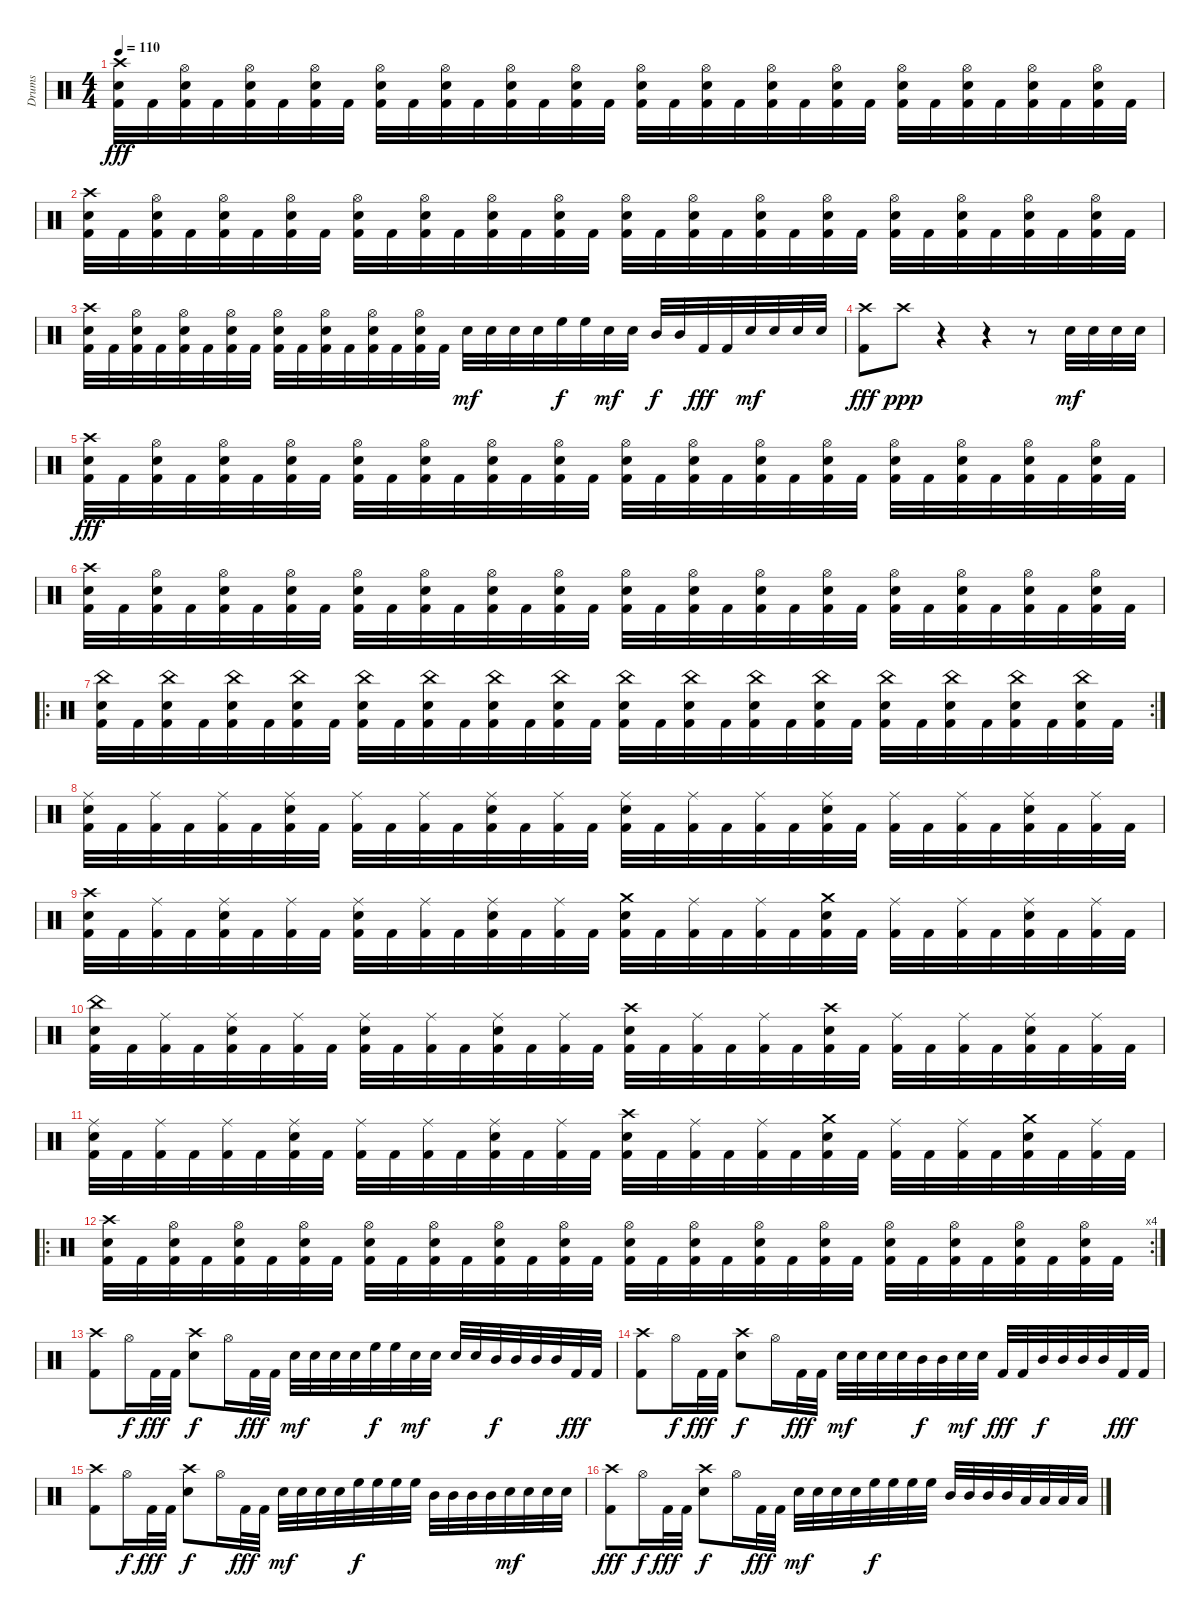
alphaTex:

\track ("Drums" "Drums") {instrument percussion}
\staff {score}
\articulation defaults
\ts (4 4)
\tempo 110
\clef neutral
\ks c
("Crash high (hit)" "Electric Snare (hit)" "Kick (hit) 2").32{dy fff} "Kick (hit) 2".32 ("Hi-Hat (open)" "Electric Snare (hit)" "Kick (hit) 2").32 "Kick (hit) 2".32 ("Hi-Hat (open)" "Electric Snare (hit)" "Kick (hit) 2").32 "Kick (hit) 2".32 ("Hi-Hat (open)" "Electric Snare (hit)" "Kick (hit) 2").32 "Kick (hit) 2".32 ("Hi-Hat (open)" "Electric Snare (hit)" "Kick (hit) 2").32 "Kick (hit) 2".32 ("Hi-Hat (open)" "Electric Snare (hit)" "Kick (hit) 2").32 "Kick (hit) 2".32 ("Hi-Hat (open)" "Electric Snare (hit)" "Kick (hit) 2").32 "Kick (hit) 2".32 ("Hi-Hat (open)" "Electric Snare (hit)" "Kick (hit) 2").32 "Kick (hit) 2".32 ("Hi-Hat (open)" "Electric Snare (hit)" "Kick (hit) 2").32 "Kick (hit) 2".32 ("Hi-Hat (open)" "Electric Snare (hit)" "Kick (hit) 2").32 "Kick (hit) 2".32 ("Hi-Hat (open)" "Electric Snare (hit)" "Kick (hit) 2").32 "Kick (hit) 2".32 ("Hi-Hat (open)" "Electric Snare (hit)" "Kick (hit) 2").32 "Kick (hit) 2".32 ("Hi-Hat (open)" "Electric Snare (hit)" "Kick (hit) 2").32 "Kick (hit) 2".32 ("Hi-Hat (open)" "Electric Snare (hit)" "Kick (hit) 2").32 "Kick (hit) 2".32 ("Hi-Hat (open)" "Electric Snare (hit)" "Kick (hit) 2").32 "Kick (hit) 2".32 ("Hi-Hat (open)" "Electric Snare (hit)" "Kick (hit) 2").32 "Kick (hit) 2".32 |
("Crash high (hit)" "Electric Snare (hit)" "Kick (hit) 2").32 "Kick (hit) 2".32 ("Hi-Hat (open)" "Electric Snare (hit)" "Kick (hit) 2").32 "Kick (hit) 2".32 ("Hi-Hat (open)" "Electric Snare (hit)" "Kick (hit) 2").32 "Kick (hit) 2".32 ("Hi-Hat (open)" "Electric Snare (hit)" "Kick (hit) 2").32 "Kick (hit) 2".32 ("Hi-Hat (open)" "Electric Snare (hit)" "Kick (hit) 2").32 "Kick (hit) 2".32 ("Hi-Hat (open)" "Electric Snare (hit)" "Kick (hit) 2").32 "Kick (hit) 2".32 ("Hi-Hat (open)" "Electric Snare (hit)" "Kick (hit) 2").32 "Kick (hit) 2".32 ("Hi-Hat (open)" "Electric Snare (hit)" "Kick (hit) 2").32 "Kick (hit) 2".32 ("Hi-Hat (open)" "Electric Snare (hit)" "Kick (hit) 2").32 "Kick (hit) 2".32 ("Hi-Hat (open)" "Electric Snare (hit)" "Kick (hit) 2").32 "Kick (hit) 2".32 ("Hi-Hat (open)" "Electric Snare (hit)" "Kick (hit) 2").32 "Kick (hit) 2".32 ("Hi-Hat (open)" "Electric Snare (hit)" "Kick (hit) 2").32 "Kick (hit) 2".32 ("Hi-Hat (open)" "Electric Snare (hit)" "Kick (hit) 2").32 "Kick (hit) 2".32 ("Hi-Hat (open)" "Electric Snare (hit)" "Kick (hit) 2").32 "Kick (hit) 2".32 ("Hi-Hat (open)" "Electric Snare (hit)" "Kick (hit) 2").32 "Kick (hit) 2".32 ("Hi-Hat (open)" "Electric Snare (hit)" "Kick (hit) 2").32 "Kick (hit) 2".32 |
("Crash high (hit)" "Electric Snare (hit)" "Kick (hit) 2").32 "Kick (hit) 2".32 ("Hi-Hat (open)" "Electric Snare (hit)" "Kick (hit) 2").32 "Kick (hit) 2".32 ("Hi-Hat (open)" "Electric Snare (hit)" "Kick (hit) 2").32 "Kick (hit) 2".32 ("Hi-Hat (open)" "Electric Snare (hit)" "Kick (hit) 2").32 "Kick (hit) 2".32 ("Hi-Hat (open)" "Electric Snare (hit)" "Kick (hit) 2").32 "Kick (hit) 2".32 ("Hi-Hat (open)" "Electric Snare (hit)" "Kick (hit) 2").32 "Kick (hit) 2".32 ("Hi-Hat (open)" "Electric Snare (hit)" "Kick (hit) 2").32 "Kick (hit) 2".32 ("Hi-Hat (open)" "Electric Snare (hit)" "Kick (hit) 2").32 "Kick (hit) 2".32 "Electric Snare (hit)".32{dy mf} "Electric Snare (hit)".32 "Electric Snare (hit)".32 "Electric Snare (hit)".32 "High Floor Tom (hit)".32{dy f} "High Floor Tom (hit)".32 "Electric Snare (hit)".32{dy mf} "Electric Snare (hit)".32 "Mid Tom (hit)".32{dy f} "Mid Tom (hit)".32 "Kick (hit) 2".32{dy fff} "Kick (hit) 2".32 "Electric Snare (hit)".32{dy mf} "Electric Snare (hit)".32 "Electric Snare (hit)".32 "Electric Snare (hit)".32 |
("Crash high (hit)" "Kick (hit) 2").8{dy fff} "Crash high (hit)".8{dy ppp} r.4 r.4 r.8 "Electric Snare (hit)".32{dy mf} "Electric Snare (hit)".32 "Electric Snare (hit)".32 "Electric Snare (hit)".32 |
("Crash high (hit)" "Electric Snare (hit)" "Kick (hit) 2").32{dy fff} "Kick (hit) 2".32 ("Hi-Hat (open)" "Electric Snare (hit)" "Kick (hit) 2").32 "Kick (hit) 2".32 ("Hi-Hat (open)" "Electric Snare (hit)" "Kick (hit) 2").32 "Kick (hit) 2".32 ("Hi-Hat (open)" "Electric Snare (hit)" "Kick (hit) 2").32 "Kick (hit) 2".32 ("Hi-Hat (open)" "Electric Snare (hit)" "Kick (hit) 2").32 "Kick (hit) 2".32 ("Hi-Hat (open)" "Electric Snare (hit)" "Kick (hit) 2").32 "Kick (hit) 2".32 ("Hi-Hat (open)" "Electric Snare (hit)" "Kick (hit) 2").32 "Kick (hit) 2".32 ("Hi-Hat (open)" "Electric Snare (hit)" "Kick (hit) 2").32 "Kick (hit) 2".32 ("Hi-Hat (open)" "Electric Snare (hit)" "Kick (hit) 2").32 "Kick (hit) 2".32 ("Hi-Hat (open)" "Electric Snare (hit)" "Kick (hit) 2").32 "Kick (hit) 2".32 ("Hi-Hat (open)" "Electric Snare (hit)" "Kick (hit) 2").32 "Kick (hit) 2".32 ("Hi-Hat (open)" "Electric Snare (hit)" "Kick (hit) 2").32 "Kick (hit) 2".32 ("Hi-Hat (open)" "Electric Snare (hit)" "Kick (hit) 2").32 "Kick (hit) 2".32 ("Hi-Hat (open)" "Electric Snare (hit)" "Kick (hit) 2").32 "Kick (hit) 2".32 ("Hi-Hat (open)" "Electric Snare (hit)" "Kick (hit) 2").32 "Kick (hit) 2".32 ("Hi-Hat (open)" "Electric Snare (hit)" "Kick (hit) 2").32 "Kick (hit) 2".32 |
("Crash high (hit)" "Electric Snare (hit)" "Kick (hit) 2").32 "Kick (hit) 2".32 ("Hi-Hat (open)" "Electric Snare (hit)" "Kick (hit) 2").32 "Kick (hit) 2".32 ("Hi-Hat (open)" "Electric Snare (hit)" "Kick (hit) 2").32 "Kick (hit) 2".32 ("Hi-Hat (open)" "Electric Snare (hit)" "Kick (hit) 2").32 "Kick (hit) 2".32 ("Hi-Hat (open)" "Electric Snare (hit)" "Kick (hit) 2").32 "Kick (hit) 2".32 ("Hi-Hat (open)" "Electric Snare (hit)" "Kick (hit) 2").32 "Kick (hit) 2".32 ("Hi-Hat (open)" "Electric Snare (hit)" "Kick (hit) 2").32 "Kick (hit) 2".32 ("Hi-Hat (open)" "Electric Snare (hit)" "Kick (hit) 2").32 "Kick (hit) 2".32 ("Hi-Hat (open)" "Electric Snare (hit)" "Kick (hit) 2").32 "Kick (hit) 2".32 ("Hi-Hat (open)" "Electric Snare (hit)" "Kick (hit) 2").32 "Kick (hit) 2".32 ("Hi-Hat (open)" "Electric Snare (hit)" "Kick (hit) 2").32 "Kick (hit) 2".32 ("Hi-Hat (open)" "Electric Snare (hit)" "Kick (hit) 2").32 "Kick (hit) 2".32 ("Hi-Hat (open)" "Electric Snare (hit)" "Kick (hit) 2").32 "Kick (hit) 2".32 ("Hi-Hat (open)" "Electric Snare (hit)" "Kick (hit) 2").32 "Kick (hit) 2".32 ("Hi-Hat (open)" "Electric Snare (hit)" "Kick (hit) 2").32 "Kick (hit) 2".32 ("Hi-Hat (open)" "Electric Snare (hit)" "Kick (hit) 2").32 "Kick (hit) 2".32 |
\ro
\rc 2
("China (hit)" "Electric Snare (hit)" "Kick (hit) 2").32 "Kick (hit) 2".32 ("China (hit)" "Electric Snare (hit)" "Kick (hit) 2").32 "Kick (hit) 2".32 ("China (hit)" "Electric Snare (hit)" "Kick (hit) 2").32 "Kick (hit) 2".32 ("China (hit)" "Electric Snare (hit)" "Kick (hit) 2").32 "Kick (hit) 2".32 ("China (hit)" "Electric Snare (hit)" "Kick (hit) 2").32 "Kick (hit) 2".32 ("China (hit)" "Electric Snare (hit)" "Kick (hit) 2").32 "Kick (hit) 2".32 ("China (hit)" "Electric Snare (hit)" "Kick (hit) 2").32 "Kick (hit) 2".32 ("China (hit)" "Electric Snare (hit)" "Kick (hit) 2").32 "Kick (hit) 2".32 ("China (hit)" "Electric Snare (hit)" "Kick (hit) 2").32 "Kick (hit) 2".32 ("China (hit)" "Electric Snare (hit)" "Kick (hit) 2").32 "Kick (hit) 2".32 ("China (hit)" "Electric Snare (hit)" "Kick (hit) 2").32 "Kick (hit) 2".32 ("China (hit)" "Electric Snare (hit)" "Kick (hit) 2").32 "Kick (hit) 2".32 ("China (hit)" "Electric Snare (hit)" "Kick (hit) 2").32 "Kick (hit) 2".32 ("China (hit)" "Electric Snare (hit)" "Kick (hit) 2").32 "Kick (hit) 2".32 ("China (hit)" "Electric Snare (hit)" "Kick (hit) 2").32 "Kick (hit) 2".32 ("China (hit)" "Electric Snare (hit)" "Kick (hit) 2").32 "Kick (hit) 2".32 |
("Ride (middle)" "Electric Snare (hit)" "Kick (hit) 2").32 "Kick (hit) 2".32 ("Ride (middle)" "Kick (hit) 2").32 "Kick (hit) 2".32 ("Ride (middle)" "Kick (hit) 2").32 "Kick (hit) 2".32 ("Ride (middle)" "Electric Snare (hit)" "Kick (hit) 2").32 "Kick (hit) 2".32 ("Ride (middle)" "Kick (hit) 2").32 "Kick (hit) 2".32 ("Ride (middle)" "Kick (hit) 2").32 "Kick (hit) 2".32 ("Ride (middle)" "Electric Snare (hit)" "Kick (hit) 2").32 "Kick (hit) 2".32 ("Ride (middle)" "Kick (hit) 2").32 "Kick (hit) 2".32 ("Ride (middle)" "Electric Snare (hit)" "Kick (hit) 2").32 "Kick (hit) 2".32 ("Ride (middle)" "Kick (hit) 2").32 "Kick (hit) 2".32 ("Ride (middle)" "Kick (hit) 2").32 "Kick (hit) 2".32 ("Ride (middle)" "Electric Snare (hit)" "Kick (hit) 2").32 "Kick (hit) 2".32 ("Ride (middle)" "Kick (hit) 2").32 "Kick (hit) 2".32 ("Ride (middle)" "Kick (hit) 2").32 "Kick (hit) 2".32 ("Ride (middle)" "Electric Snare (hit)" "Kick (hit) 2").32 "Kick (hit) 2".32 ("Ride (middle)" "Kick (hit) 2").32 "Kick (hit) 2".32 |
("Crash high (hit)" "Electric Snare (hit)" "Kick (hit) 2").32 "Kick (hit) 2".32 ("Ride (middle)" "Kick (hit) 2").32 "Kick (hit) 2".32 ("Ride (middle)" "Electric Snare (hit)" "Kick (hit) 2").32 "Kick (hit) 2".32 ("Ride (middle)" "Kick (hit) 2").32 "Kick (hit) 2".32 ("Ride (middle)" "Electric Snare (hit)" "Kick (hit) 2").32 "Kick (hit) 2".32 ("Ride (middle)" "Kick (hit) 2").32 "Kick (hit) 2".32 ("Ride (middle)" "Electric Snare (hit)" "Kick (hit) 2").32 "Kick (hit) 2".32 ("Ride (middle)" "Kick (hit) 2").32 "Kick (hit) 2".32 ("Crash medium (hit)" "Electric Snare (hit)" "Kick (hit) 2").32 "Kick (hit) 2".32 ("Ride (middle)" "Kick (hit) 2").32 "Kick (hit) 2".32 ("Ride (middle)" "Kick (hit) 2").32 "Kick (hit) 2".32 ("Crash medium (hit)" "Electric Snare (hit)" "Kick (hit) 2").32 "Kick (hit) 2".32 ("Ride (middle)" "Kick (hit) 2").32 "Kick (hit) 2".32 ("Ride (middle)" "Kick (hit) 2").32 "Kick (hit) 2".32 ("Ride (middle)" "Electric Snare (hit)" "Kick (hit) 2").32 "Kick (hit) 2".32 ("Ride (middle)" "Kick (hit) 2").32 "Kick (hit) 2".32 |
("China (hit)" "Electric Snare (hit)" "Kick (hit) 2").32 "Kick (hit) 2".32 ("Ride (middle)" "Kick (hit) 2").32 "Kick (hit) 2".32 ("Ride (middle)" "Electric Snare (hit)" "Kick (hit) 2").32 "Kick (hit) 2".32 ("Ride (middle)" "Kick (hit) 2").32 "Kick (hit) 2".32 ("Ride (middle)" "Electric Snare (hit)" "Kick (hit) 2").32 "Kick (hit) 2".32 ("Ride (middle)" "Kick (hit) 2").32 "Kick (hit) 2".32 ("Ride (middle)" "Electric Snare (hit)" "Kick (hit) 2").32 "Kick (hit) 2".32 ("Ride (middle)" "Kick (hit) 2").32 "Kick (hit) 2".32 ("Crash high (hit)" "Electric Snare (hit)" "Kick (hit) 2").32 "Kick (hit) 2".32 ("Ride (middle)" "Kick (hit) 2").32 "Kick (hit) 2".32 ("Ride (middle)" "Kick (hit) 2").32 "Kick (hit) 2".32 ("Crash high (hit)" "Electric Snare (hit)" "Kick (hit) 2").32 "Kick (hit) 2".32 ("Ride (middle)" "Kick (hit) 2").32 "Kick (hit) 2".32 ("Ride (middle)" "Kick (hit) 2").32 "Kick (hit) 2".32 ("Ride (middle)" "Electric Snare (hit)" "Kick (hit) 2").32 "Kick (hit) 2".32 ("Ride (middle)" "Kick (hit) 2").32 "Kick (hit) 2".32 |
("Ride (middle)" "Electric Snare (hit)" "Kick (hit) 2").32 "Kick (hit) 2".32 ("Ride (middle)" "Kick (hit) 2").32 "Kick (hit) 2".32 ("Ride (middle)" "Kick (hit) 2").32 "Kick (hit) 2".32 ("Ride (middle)" "Electric Snare (hit)" "Kick (hit) 2").32 "Kick (hit) 2".32 ("Ride (middle)" "Kick (hit) 2").32 "Kick (hit) 2".32 ("Ride (middle)" "Kick (hit) 2").32 "Kick (hit) 2".32 ("Ride (middle)" "Electric Snare (hit)" "Kick (hit) 2").32 "Kick (hit) 2".32 ("Ride (middle)" "Kick (hit) 2").32 "Kick (hit) 2".32 ("Crash high (hit)" "Electric Snare (hit)" "Kick (hit) 2").32 "Kick (hit) 2".32 ("Ride (middle)" "Kick (hit) 2").32 "Kick (hit) 2".32 ("Ride (middle)" "Kick (hit) 2").32 "Kick (hit) 2".32 ("Crash medium (hit)" "Electric Snare (hit)" "Kick (hit) 2").32 "Kick (hit) 2".32 ("Ride (middle)" "Kick (hit) 2").32 "Kick (hit) 2".32 ("Ride (middle)" "Kick (hit) 2").32 "Kick (hit) 2".32 ("Crash medium (hit)" "Electric Snare (hit)" "Kick (hit) 2").32 "Kick (hit) 2".32 ("Ride (middle)" "Kick (hit) 2").32 "Kick (hit) 2".32 |
\ro
\rc 4
("Crash high (hit)" "Electric Snare (hit)" "Kick (hit) 2").32 "Kick (hit) 2".32 ("Hi-Hat (open)" "Electric Snare (hit)" "Kick (hit) 2").32 "Kick (hit) 2".32 ("Hi-Hat (open)" "Electric Snare (hit)" "Kick (hit) 2").32 "Kick (hit) 2".32 ("Hi-Hat (open)" "Electric Snare (hit)" "Kick (hit) 2").32 "Kick (hit) 2".32 ("Hi-Hat (open)" "Electric Snare (hit)" "Kick (hit) 2").32 "Kick (hit) 2".32 ("Hi-Hat (open)" "Electric Snare (hit)" "Kick (hit) 2").32 "Kick (hit) 2".32 ("Hi-Hat (open)" "Electric Snare (hit)" "Kick (hit) 2").32 "Kick (hit) 2".32 ("Hi-Hat (open)" "Electric Snare (hit)" "Kick (hit) 2").32 "Kick (hit) 2".32 ("Hi-Hat (open)" "Electric Snare (hit)" "Kick (hit) 2").32 "Kick (hit) 2".32 ("Hi-Hat (open)" "Electric Snare (hit)" "Kick (hit) 2").32 "Kick (hit) 2".32 ("Hi-Hat (open)" "Electric Snare (hit)" "Kick (hit) 2").32 "Kick (hit) 2".32 ("Hi-Hat (open)" "Electric Snare (hit)" "Kick (hit) 2").32 "Kick (hit) 2".32 ("Hi-Hat (open)" "Electric Snare (hit)" "Kick (hit) 2").32 "Kick (hit) 2".32 ("Hi-Hat (open)" "Electric Snare (hit)" "Kick (hit) 2").32 "Kick (hit) 2".32 ("Hi-Hat (open)" "Electric Snare (hit)" "Kick (hit) 2").32 "Kick (hit) 2".32 ("Hi-Hat (open)" "Electric Snare (hit)" "Kick (hit) 2").32 "Kick (hit) 2".32 |
("Crash high (hit)" "Kick (hit) 2").8 "Hi-Hat (open)".16{dy f} "Kick (hit) 2".32{dy fff} "Kick (hit) 2".32 ("Crash high (hit)" "Electric Snare (hit)").8{dy f} "Hi-Hat (open)".16 "Kick (hit) 2".32{dy fff} "Kick (hit) 2".32 "Electric Snare (hit)".32{dy mf} "Electric Snare (hit)".32 "Electric Snare (hit)".32 "Electric Snare (hit)".32 "High Floor Tom (hit)".32{dy f} "High Floor Tom (hit)".32 "Electric Snare (hit)".32{dy mf} "Electric Snare (hit)".32 "Electric Snare (hit)".32 "Electric Snare (hit)".32 "Mid Tom (hit)".32{dy f} "Mid Tom (hit)".32 "Mid Tom (hit)".32 "Mid Tom (hit)".32 "Kick (hit) 2".32{dy fff} "Kick (hit) 2".32 |
("Crash high (hit)" "Kick (hit) 2").8 "Hi-Hat (open)".16{dy f} "Kick (hit) 2".32{dy fff} "Kick (hit) 2".32 ("Crash high (hit)" "Electric Snare (hit)").8{dy f} "Hi-Hat (open)".16 "Kick (hit) 2".32{dy fff} "Kick (hit) 2".32 "Electric Snare (hit)".32{dy mf} "Electric Snare (hit)".32 "Electric Snare (hit)".32 "Electric Snare (hit)".32 "Mid Tom (hit)".32{dy f} "Mid Tom (hit)".32 "Electric Snare (hit)".32{dy mf} "Electric Snare (hit)".32 "Kick (hit) 2".32{dy fff} "Kick (hit) 2".32 "Mid Tom (hit)".32{dy f} "Mid Tom (hit)".32 "Mid Tom (hit)".32 "Mid Tom (hit)".32 "Kick (hit) 2".32{dy fff} "Kick (hit) 2".32 |
("Crash high (hit)" "Kick (hit) 2").8 "Hi-Hat (open)".16{dy f} "Kick (hit) 2".32{dy fff} "Kick (hit) 2".32 ("Crash high (hit)" "Electric Snare (hit)").8{dy f} "Hi-Hat (open)".16 "Kick (hit) 2".32{dy fff} "Kick (hit) 2".32 "Electric Snare (hit)".32{dy mf} "Electric Snare (hit)".32 "Electric Snare (hit)".32 "Electric Snare (hit)".32 "High Floor Tom (hit)".32{dy f} "High Floor Tom (hit)".32 "High Floor Tom (hit)".32 "High Floor Tom (hit)".32 "Mid Tom (hit)".32 "Mid Tom (hit)".32 "Mid Tom (hit)".32 "Mid Tom (hit)".32 "Electric Snare (hit)".32{dy mf} "Electric Snare (hit)".32 "Electric Snare (hit)".32 "Electric Snare (hit)".32 |
("Crash high (hit)" "Kick (hit) 2").8{dy fff} "Hi-Hat (open)".16{dy f} "Kick (hit) 2".32{dy fff} "Kick (hit) 2".32 ("Crash high (hit)" "Electric Snare (hit)").8{dy f} "Hi-Hat (open)".16 "Kick (hit) 2".32{dy fff} "Kick (hit) 2".32 "Electric Snare (hit)".32{dy mf} "Electric Snare (hit)".32 "Electric Snare (hit)".32 "Electric Snare (hit)".32 "High Floor Tom (hit)".32{dy f} "High Floor Tom (hit)".32 "High Floor Tom (hit)".32 "High Floor Tom (hit)".32 "Mid Tom (hit)".32 "Mid Tom (hit)".32 "Mid Tom (hit)".32 "Mid Tom (hit)".32 "Low Tom (hit)".32 "Low Tom (hit)".32 "Low Tom (hit)".32 "Low Tom (hit)".32
